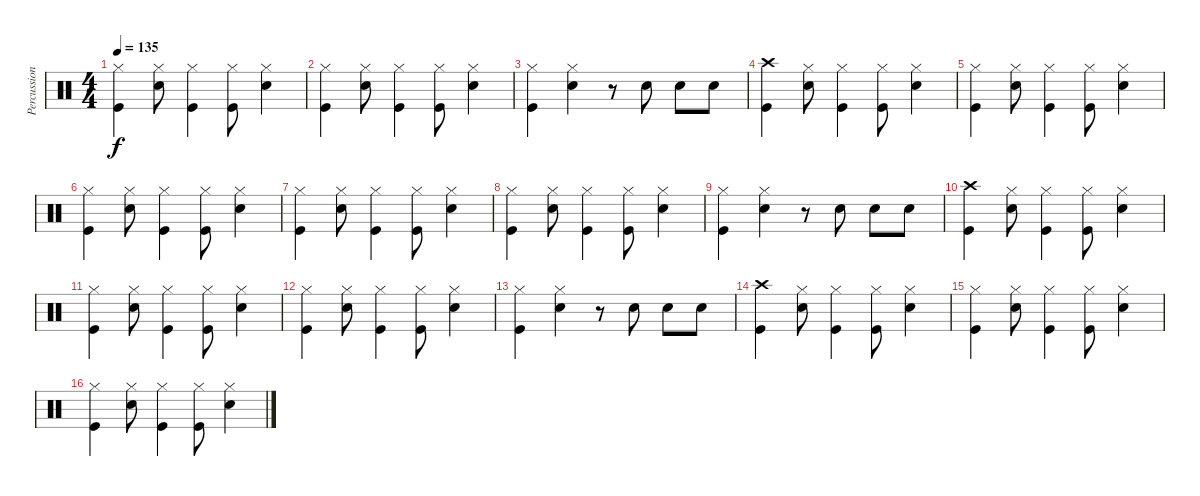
\track ("Percussion" "Percussion") {instrument percussion}
\staff {score}
\articulation defaults
\ts (4 4)
\tempo 135
\clef neutral
\ks c
("Hi-Hat (closed)" "Kick (hit)").4{dy f} ("Hi-Hat (closed)" "Electric Snare (hit)").8 ("Hi-Hat (closed)" "Kick (hit)").4 ("Hi-Hat (closed)" "Kick (hit)").8 ("Hi-Hat (closed)" "Electric Snare (hit)").4 |
("Hi-Hat (closed)" "Kick (hit)").4 ("Hi-Hat (closed)" "Electric Snare (hit)").8 ("Hi-Hat (closed)" "Kick (hit)").4 ("Hi-Hat (closed)" "Kick (hit)").8 ("Hi-Hat (closed)" "Electric Snare (hit)").4 |
("Hi-Hat (closed)" "Kick (hit)").4 ("Hi-Hat (closed)" "Electric Snare (hit)").4 r.8 "Electric Snare (hit)".8 "Electric Snare (hit)".8 "Electric Snare (hit)".8 |
("Crash high (hit)" "Kick (hit)").4 ("Hi-Hat (closed)" "Electric Snare (hit)").8 ("Hi-Hat (closed)" "Kick (hit)").4 ("Hi-Hat (closed)" "Kick (hit)").8 ("Hi-Hat (closed)" "Electric Snare (hit)").4 |
("Hi-Hat (closed)" "Kick (hit)").4 ("Hi-Hat (closed)" "Electric Snare (hit)").8 ("Hi-Hat (closed)" "Kick (hit)").4 ("Hi-Hat (closed)" "Kick (hit)").8 ("Hi-Hat (closed)" "Electric Snare (hit)").4 |
("Hi-Hat (closed)" "Kick (hit)").4 ("Hi-Hat (closed)" "Electric Snare (hit)").8 ("Hi-Hat (closed)" "Kick (hit)").4 ("Hi-Hat (closed)" "Kick (hit)").8 ("Hi-Hat (closed)" "Electric Snare (hit)").4 |
("Hi-Hat (closed)" "Kick (hit)").4 ("Hi-Hat (closed)" "Electric Snare (hit)").8 ("Hi-Hat (closed)" "Kick (hit)").4 ("Hi-Hat (closed)" "Kick (hit)").8 ("Hi-Hat (closed)" "Electric Snare (hit)").4 |
("Hi-Hat (closed)" "Kick (hit)").4 ("Hi-Hat (closed)" "Electric Snare (hit)").8 ("Hi-Hat (closed)" "Kick (hit)").4 ("Hi-Hat (closed)" "Kick (hit)").8 ("Hi-Hat (closed)" "Electric Snare (hit)").4 |
("Hi-Hat (closed)" "Kick (hit)").4 ("Hi-Hat (closed)" "Electric Snare (hit)").4 r.8 "Electric Snare (hit)".8 "Electric Snare (hit)".8 "Electric Snare (hit)".8 |
("Crash high (hit)" "Kick (hit)").4 ("Hi-Hat (closed)" "Electric Snare (hit)").8 ("Hi-Hat (closed)" "Kick (hit)").4 ("Hi-Hat (closed)" "Kick (hit)").8 ("Hi-Hat (closed)" "Electric Snare (hit)").4 |
("Hi-Hat (closed)" "Kick (hit)").4 ("Hi-Hat (closed)" "Electric Snare (hit)").8 ("Hi-Hat (closed)" "Kick (hit)").4 ("Hi-Hat (closed)" "Kick (hit)").8 ("Hi-Hat (closed)" "Electric Snare (hit)").4 |
("Hi-Hat (closed)" "Kick (hit)").4 ("Hi-Hat (closed)" "Electric Snare (hit)").8 ("Hi-Hat (closed)" "Kick (hit)").4 ("Hi-Hat (closed)" "Kick (hit)").8 ("Hi-Hat (closed)" "Electric Snare (hit)").4 |
("Hi-Hat (closed)" "Kick (hit)").4 ("Hi-Hat (closed)" "Electric Snare (hit)").4 r.8 "Electric Snare (hit)".8 "Electric Snare (hit)".8 "Electric Snare (hit)".8 |
("Crash high (hit)" "Kick (hit)").4 ("Hi-Hat (closed)" "Electric Snare (hit)").8 ("Hi-Hat (closed)" "Kick (hit)").4 ("Hi-Hat (closed)" "Kick (hit)").8 ("Hi-Hat (closed)" "Electric Snare (hit)").4 |
("Hi-Hat (closed)" "Kick (hit)").4 ("Hi-Hat (closed)" "Electric Snare (hit)").8 ("Hi-Hat (closed)" "Kick (hit)").4 ("Hi-Hat (closed)" "Kick (hit)").8 ("Hi-Hat (closed)" "Electric Snare (hit)").4 |
("Hi-Hat (closed)" "Kick (hit)").4 ("Hi-Hat (closed)" "Electric Snare (hit)").8 ("Hi-Hat (closed)" "Kick (hit)").4 ("Hi-Hat (closed)" "Kick (hit)").8 ("Hi-Hat (closed)" "Electric Snare (hit)").4
